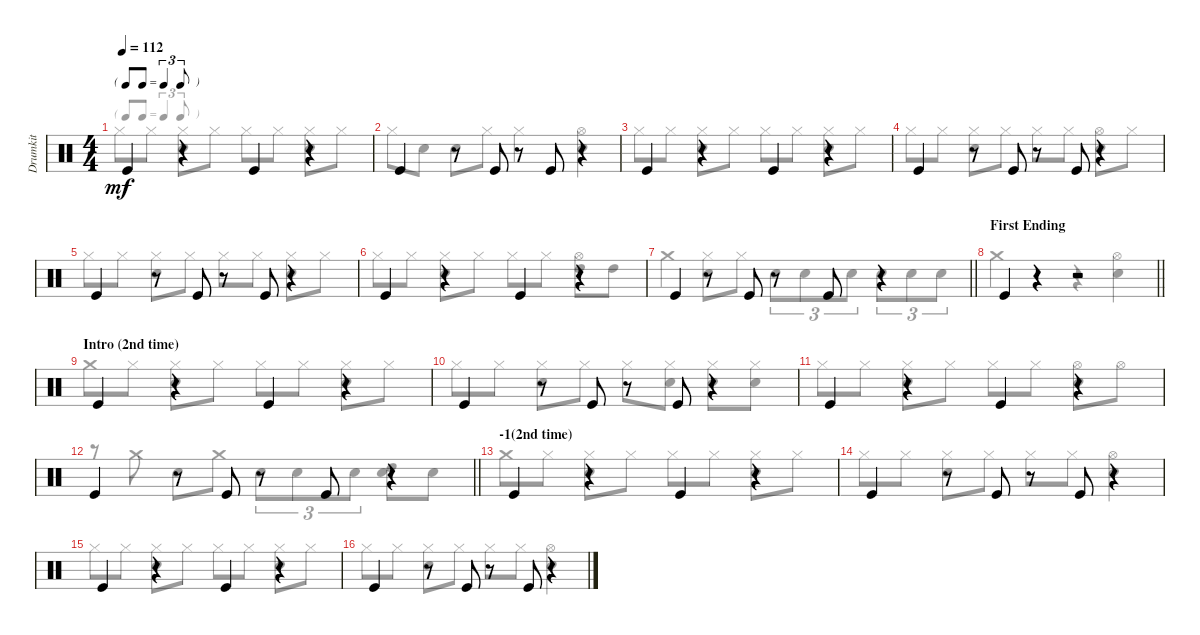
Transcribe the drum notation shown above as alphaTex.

\track ("Drumkit" "Drumkit") {instrument percussion}
\staff {score}
\articulation defaults
\voice
\ts (4 4)
\tf triplet8th
\tempo 112
\clef neutral
\ks c "Kick (hit)".4{dy mf}
r.4 "Kick (hit)".4 r.4 |
"Kick (hit)".4 r.8 "Kick (hit)".8 r.8 "Kick (hit)".8 r.4 |
"Kick (hit)".4 r.4 "Kick (hit)".4 r.4 |
"Kick (hit)".4 r.8 "Kick (hit)".8 r.8 "Kick (hit)".8 r.4 |
"Kick (hit)".4 r.8 "Kick (hit)".8 r.8 "Kick (hit)".8 r.4 |
"Kick (hit)".4 r.4 "Kick (hit)".4 r.4 |
\barLineRight lightlight "Kick (hit)".4
r.8 "Kick (hit)".8 r.8 "Kick (hit)".8 r.4 |
\section ("" "First Ending")
\barLineRight lightlight "Kick (hit)".4
r.4 r.2 |
\section ("" "Intro (2nd time)")
"Kick (hit)".4 r.4 "Kick (hit)".4 r.4 |
"Kick (hit)".4 r.8 "Kick (hit)".8 r.8 "Kick (hit)".8 r.4 |
"Kick (hit)".4 r.4 "Kick (hit)".4 r.4 |
\barLineRight lightlight "Kick (hit)".4
r.8 "Kick (hit)".8 r.8 "Kick (hit)".8 r.4 |
\section ("" "-1(2nd time)")
"Kick (hit)".4 r.4 "Kick (hit)".4 r.4 |
"Kick (hit)".4 r.8 "Kick (hit)".8 r.8 "Kick (hit)".8 r.4 |
"Kick (hit)".4 r.4 "Kick (hit)".4 r.4 |
"Kick (hit)".4 r.8 "Kick (hit)".8 r.8 "Kick (hit)".8 r.4
\voice
\clef neutral
\ottava regular
\simile none
\ks c "Hi-Hat (closed)".8{dy mf} "Hi-Hat (closed)".8
("Hi-Hat (closed)" "Snare (hit) 2").8 "Hi-Hat (closed)".8 "Hi-Hat (closed)".8 "Hi-Hat (closed)".8 ("Hi-Hat (closed)" "Snare (hit) 2").8 "Hi-Hat (closed)".8 |
"Hi-Hat (closed)".8 "Snare (hit) 2".8 "Snare (hit) 2".8 "Hi-Hat (closed)".8 "Hi-Hat (closed)".4 ("Hi-Hat (open)" "Snare (hit) 2").4 |
"Hi-Hat (closed)".8 "Hi-Hat (closed)".8 ("Hi-Hat (closed)" "Snare (hit) 2").8 "Hi-Hat (closed)".8 "Hi-Hat (closed)".8 "Hi-Hat (closed)".8 ("Hi-Hat (closed)" "Snare (hit) 2").8 "Hi-Hat (closed)".8 |
"Hi-Hat (closed)".8 "Hi-Hat (closed)".8 ("Hi-Hat (closed)" "Snare (hit) 2").8 "Hi-Hat (closed)".8 "Hi-Hat (closed)".8 "Hi-Hat (closed)".8 ("Hi-Hat (open)" "Snare (hit) 2").8 "Hi-Hat (closed)".8 |
"Hi-Hat (closed)".8 "Hi-Hat (closed)".8 ("Hi-Hat (closed)" "Snare (hit) 2").8 "Hi-Hat (closed)".8 "Hi-Hat (closed)".8 "Hi-Hat (closed)".8 ("Hi-Hat (closed)" "Snare (hit) 2").8 "Hi-Hat (closed)".8 |
"Hi-Hat (closed)".8 "Hi-Hat (closed)".8 ("Hi-Hat (closed)" "Snare (hit) 2").8 "Hi-Hat (closed)".8 "Hi-Hat (closed)".8 "Hi-Hat (closed)".8 ("Hi-Hat (open)" "High Tom (hit)").8 "High Tom (hit)".8 |
\barLineRight lightlight "Crash medium (hit)".4
("Hi-Hat (closed)" "Snare (hit) 2").8 "Hi-Hat (closed)".8 "Snare (hit) 2".8{tu (3 2)} "Snare (hit) 2".8{tu (3 2)} "Snare (hit) 2".8{tu (3 2)} "Snare (hit) 2".8{tu (3 2)} "Snare (hit) 2".8{tu (3 2)} "Snare (hit) 2".8{tu (3 2)} |
\barLineRight lightlight "Crash medium (hit)".4
r.4 r.4 ("Hi-Hat (open)" "Snare (hit) 2").4 |
"Crash medium (hit)".8 "Hi-Hat (closed)".8 ("Hi-Hat (closed)" "Snare (hit) 2").8 "Hi-Hat (closed)".8 "Hi-Hat (closed)".8 "Hi-Hat (closed)".8 ("Hi-Hat (closed)" "Snare (hit) 2").8 "Hi-Hat (closed)".8 |
"Hi-Hat (closed)".8 "Hi-Hat (closed)".8 ("Hi-Hat (closed)" "Snare (hit) 2").8 "Hi-Hat (closed)".8 "Hi-Hat (closed)".8 ("Hi-Hat (closed)" "Snare (hit) 2").8 ("Hi-Hat (closed)" "Snare (hit) 2").8 ("Hi-Hat (closed)" "Snare (hit) 2").8 |
"Hi-Hat (closed)".8 "Hi-Hat (closed)".8 ("Hi-Hat (closed)" "Snare (hit) 2").8 "Hi-Hat (closed)".8 "Hi-Hat (closed)".8 "Hi-Hat (closed)".8 ("Hi-Hat (open)" "Snare (hit) 2").8 "Hi-Hat (open)".8 |
\barLineRight lightlight
r.8 "Crash medium (hit)".8 "Snare (hit) 2".8 "Crash medium (hit)".8 "Snare (hit) 2".8{tu (3 2)} "Snare (hit) 2".8{tu (3 2)} "Snare (hit) 2".8{tu (3 2)} ("Snare (hit) 2" "High Tom (hit)").8 "Snare (hit) 2".8 |
"Crash medium (hit)".8 "Hi-Hat (closed)".8 ("Hi-Hat (closed)" "Snare (hit) 2").8 "Hi-Hat (closed)".8 "Hi-Hat (closed)".8 "Hi-Hat (closed)".8 ("Hi-Hat (closed)" "Snare (hit) 2").8 "Hi-Hat (closed)".8 |
"Hi-Hat (closed)".8 "Hi-Hat (closed)".8 ("Hi-Hat (closed)" "Snare (hit) 2").8 "Hi-Hat (closed)".8 "Hi-Hat (closed)".8 "Hi-Hat (closed)".8 ("Hi-Hat (open)" "Snare (hit) 2").4 |
"Hi-Hat (closed)".8 "Hi-Hat (closed)".8 ("Hi-Hat (closed)" "Snare (hit) 2").8 "Hi-Hat (closed)".8 "Hi-Hat (closed)".8 "Hi-Hat (closed)".8 ("Hi-Hat (closed)" "Snare (hit) 2").8 "Hi-Hat (closed)".8 |
"Hi-Hat (closed)".8 "Hi-Hat (closed)".8 ("Hi-Hat (closed)" "Snare (hit) 2").8 "Hi-Hat (closed)".8 "Hi-Hat (closed)".8 "Hi-Hat (closed)".8 ("Hi-Hat (open)" "Snare (hit) 2").4
